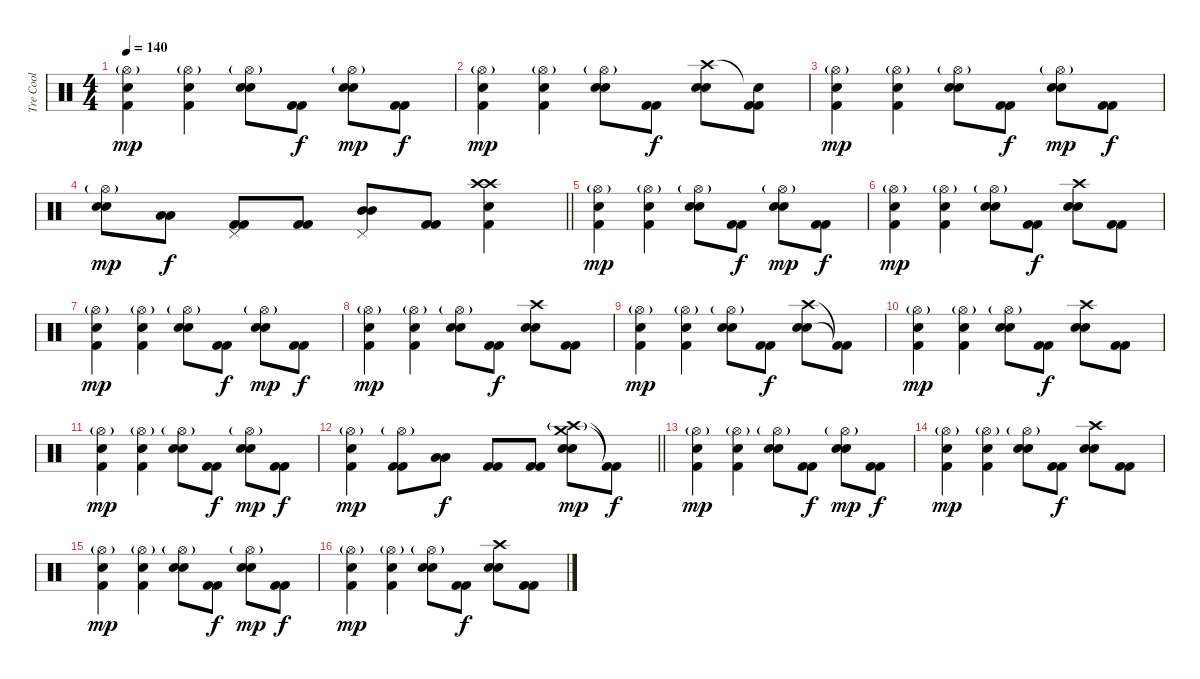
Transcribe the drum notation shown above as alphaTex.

\track ("Tre Cool" "Tre Cool") {instrument percussion}
\staff {score}
\articulation defaults
\ts (4 4)
\tempo 140
\clef neutral
\ks c
("Hi-Hat (open)"{g} "Electric Snare (hit)" "Kick (hit) 2").4{dy mp} ("Hi-Hat (open)"{g} "Electric Snare (hit)" "Kick (hit) 2").4 ("Hi-Hat (open)"{g} "Electric Snare (hit)" "Electric Snare (hit)").8 ("Kick (hit) 2" "Kick (hit) 2").8{dy f} ("Hi-Hat (open)"{g} "Electric Snare (hit)" "Electric Snare (hit)").8{dy mp} ("Kick (hit) 2" "Kick (hit) 2").8{dy f} |
("Hi-Hat (open)"{g} "Electric Snare (hit)" "Kick (hit) 2").4{dy mp} ("Hi-Hat (open)"{g} "Electric Snare (hit)" "Kick (hit) 2").4 ("Hi-Hat (open)"{g} "Electric Snare (hit)" "Electric Snare (hit)").8 ("Kick (hit) 2" "Kick (hit) 2").8{dy f} ("Crash high (hit)" "Electric Snare (hit)" "Electric Snare (hit)").8 ("Snare (hit)"{t} "Kick (hit) 2" "Kick (hit) 2").8 |
("Hi-Hat (open)"{g} "Electric Snare (hit)" "Kick (hit) 2").4{dy mp} ("Hi-Hat (open)"{g} "Electric Snare (hit)" "Kick (hit) 2").4 ("Hi-Hat (open)"{g} "Electric Snare (hit)" "Electric Snare (hit)").8 ("Kick (hit) 2" "Kick (hit) 2").8{dy f} ("Hi-Hat (open)"{g} "Electric Snare (hit)" "Electric Snare (hit)").8{dy mp} ("Kick (hit) 2" "Kick (hit) 2").8{dy f} |
\barLineRight lightlight
("Hi-Hat (open)"{g} "Electric Snare (hit)" "Electric Snare (hit)").8{dy mp} ("Low Tom (hit)" "Low Tom (hit)").8{dy f} ("Pedal Hi-Hat (hit)" "Kick (hit) 2" "Kick (hit) 2").8 ("Kick (hit) 2" "Kick (hit) 2").8 ("Pedal Hi-Hat (hit)" "Mid Tom (hit)" "Mid Tom (hit)").8 ("Kick (hit) 2" "Kick (hit) 2").8 ("Crash high (hit)" "Crash high (hit)" "Electric Snare (hit)" "Kick (hit) 2").4 |
("Hi-Hat (open)"{g} "Electric Snare (hit)" "Kick (hit) 2").4{dy mp} ("Hi-Hat (open)"{g} "Electric Snare (hit)" "Kick (hit) 2").4 ("Hi-Hat (open)"{g} "Electric Snare (hit)" "Electric Snare (hit)").8 ("Kick (hit) 2" "Kick (hit) 2").8{dy f} ("Hi-Hat (open)"{g} "Electric Snare (hit)" "Electric Snare (hit)").8{dy mp} ("Kick (hit) 2" "Kick (hit) 2").8{dy f} |
("Hi-Hat (open)"{g} "Electric Snare (hit)" "Kick (hit) 2").4{dy mp} ("Hi-Hat (open)"{g} "Electric Snare (hit)" "Kick (hit) 2").4 ("Hi-Hat (open)"{g} "Electric Snare (hit)" "Electric Snare (hit)").8 ("Kick (hit) 2" "Kick (hit) 2").8{dy f} ("Crash high (hit)" "Electric Snare (hit)" "Electric Snare (hit)").8 ("Kick (hit) 2" "Kick (hit) 2").8 |
("Hi-Hat (open)"{g} "Electric Snare (hit)" "Kick (hit) 2").4{dy mp} ("Hi-Hat (open)"{g} "Electric Snare (hit)" "Kick (hit) 2").4 ("Hi-Hat (open)"{g} "Electric Snare (hit)" "Electric Snare (hit)").8 ("Kick (hit) 2" "Kick (hit) 2").8{dy f} ("Hi-Hat (open)"{g} "Electric Snare (hit)" "Electric Snare (hit)").8{dy mp} ("Kick (hit) 2" "Kick (hit) 2").8{dy f} |
("Hi-Hat (open)"{g} "Electric Snare (hit)" "Kick (hit) 2").4{dy mp} ("Hi-Hat (open)"{g} "Electric Snare (hit)" "Kick (hit) 2").4 ("Hi-Hat (open)"{g} "Electric Snare (hit)" "Electric Snare (hit)").8 ("Kick (hit) 2" "Kick (hit) 2").8{dy f} ("Crash high (hit)" "Electric Snare (hit)" "Electric Snare (hit)").8 ("Kick (hit) 2" "Kick (hit) 2").8 |
("Hi-Hat (open)"{g} "Electric Snare (hit)" "Kick (hit) 2").4{dy mp} ("Hi-Hat (open)"{g} "Electric Snare (hit)" "Kick (hit) 2").4 ("Hi-Hat (open)"{g} "Electric Snare (hit)" "Electric Snare (hit)").8 ("Kick (hit) 2" "Kick (hit) 2").8{dy f} ("Crash high (hit)" "Electric Snare (hit)" "Electric Snare (hit)").8 ("Kick (hit) 2"{t} "Kick (hit) 2"{t}).8 |
("Hi-Hat (open)"{g} "Electric Snare (hit)" "Kick (hit) 2").4{dy mp} ("Hi-Hat (open)"{g} "Electric Snare (hit)" "Kick (hit) 2").4 ("Hi-Hat (open)"{g} "Electric Snare (hit)" "Electric Snare (hit)").8 ("Kick (hit) 2" "Kick (hit) 2").8{dy f} ("Crash high (hit)" "Electric Snare (hit)" "Electric Snare (hit)").8 ("Kick (hit) 2" "Kick (hit) 2").8 |
("Hi-Hat (open)"{g} "Electric Snare (hit)" "Kick (hit) 2").4{dy mp} ("Hi-Hat (open)"{g} "Electric Snare (hit)" "Kick (hit) 2").4 ("Hi-Hat (open)"{g} "Electric Snare (hit)" "Electric Snare (hit)").8 ("Kick (hit) 2" "Kick (hit) 2").8{dy f} ("Hi-Hat (open)"{g} "Electric Snare (hit)" "Electric Snare (hit)").8{dy mp} ("Kick (hit) 2" "Kick (hit) 2").8{dy f} |
\barLineRight lightlight
("Hi-Hat (open)"{g} "Electric Snare (hit)" "Kick (hit) 2").4{dy mp} ("Hi-Hat (open)"{g} "Kick (hit) 2" "Kick (hit) 2").8 ("Low Tom (hit)" "Low Tom (hit)").8{dy f} ("Kick (hit) 2" "Kick (hit) 2").8 ("Kick (hit) 2" "Kick (hit) 2").8 ("Crash high (hit)"{g} "Crash medium (hit)" "Electric Snare (hit)" "Electric Snare (hit)").8{dy mp} ("Kick (hit) 2"{t} "Kick (hit) 2"{t}).8{dy f} |
("Hi-Hat (open)"{g} "Electric Snare (hit)" "Kick (hit) 2").4{dy mp} ("Hi-Hat (open)"{g} "Electric Snare (hit)" "Kick (hit) 2").4 ("Hi-Hat (open)"{g} "Electric Snare (hit)" "Electric Snare (hit)").8 ("Kick (hit) 2" "Kick (hit) 2").8{dy f} ("Hi-Hat (open)"{g} "Electric Snare (hit)" "Electric Snare (hit)").8{dy mp} ("Kick (hit) 2" "Kick (hit) 2").8{dy f} |
("Hi-Hat (open)"{g} "Electric Snare (hit)" "Kick (hit) 2").4{dy mp} ("Hi-Hat (open)"{g} "Electric Snare (hit)" "Kick (hit) 2").4 ("Hi-Hat (open)"{g} "Electric Snare (hit)" "Electric Snare (hit)").8 ("Kick (hit) 2" "Kick (hit) 2").8{dy f} ("Crash high (hit)" "Electric Snare (hit)" "Electric Snare (hit)").8 ("Kick (hit) 2" "Kick (hit) 2").8 |
("Hi-Hat (open)"{g} "Electric Snare (hit)" "Kick (hit) 2").4{dy mp} ("Hi-Hat (open)"{g} "Electric Snare (hit)" "Kick (hit) 2").4 ("Hi-Hat (open)"{g} "Electric Snare (hit)" "Electric Snare (hit)").8 ("Kick (hit) 2" "Kick (hit) 2").8{dy f} ("Hi-Hat (open)"{g} "Electric Snare (hit)" "Electric Snare (hit)").8{dy mp} ("Kick (hit) 2" "Kick (hit) 2").8{dy f} |
("Hi-Hat (open)"{g} "Electric Snare (hit)" "Kick (hit) 2").4{dy mp} ("Hi-Hat (open)"{g} "Electric Snare (hit)" "Kick (hit) 2").4 ("Hi-Hat (open)"{g} "Electric Snare (hit)" "Electric Snare (hit)").8 ("Kick (hit) 2" "Kick (hit) 2").8{dy f} ("Crash high (hit)" "Electric Snare (hit)" "Electric Snare (hit)").8 ("Kick (hit) 2" "Kick (hit) 2").8
